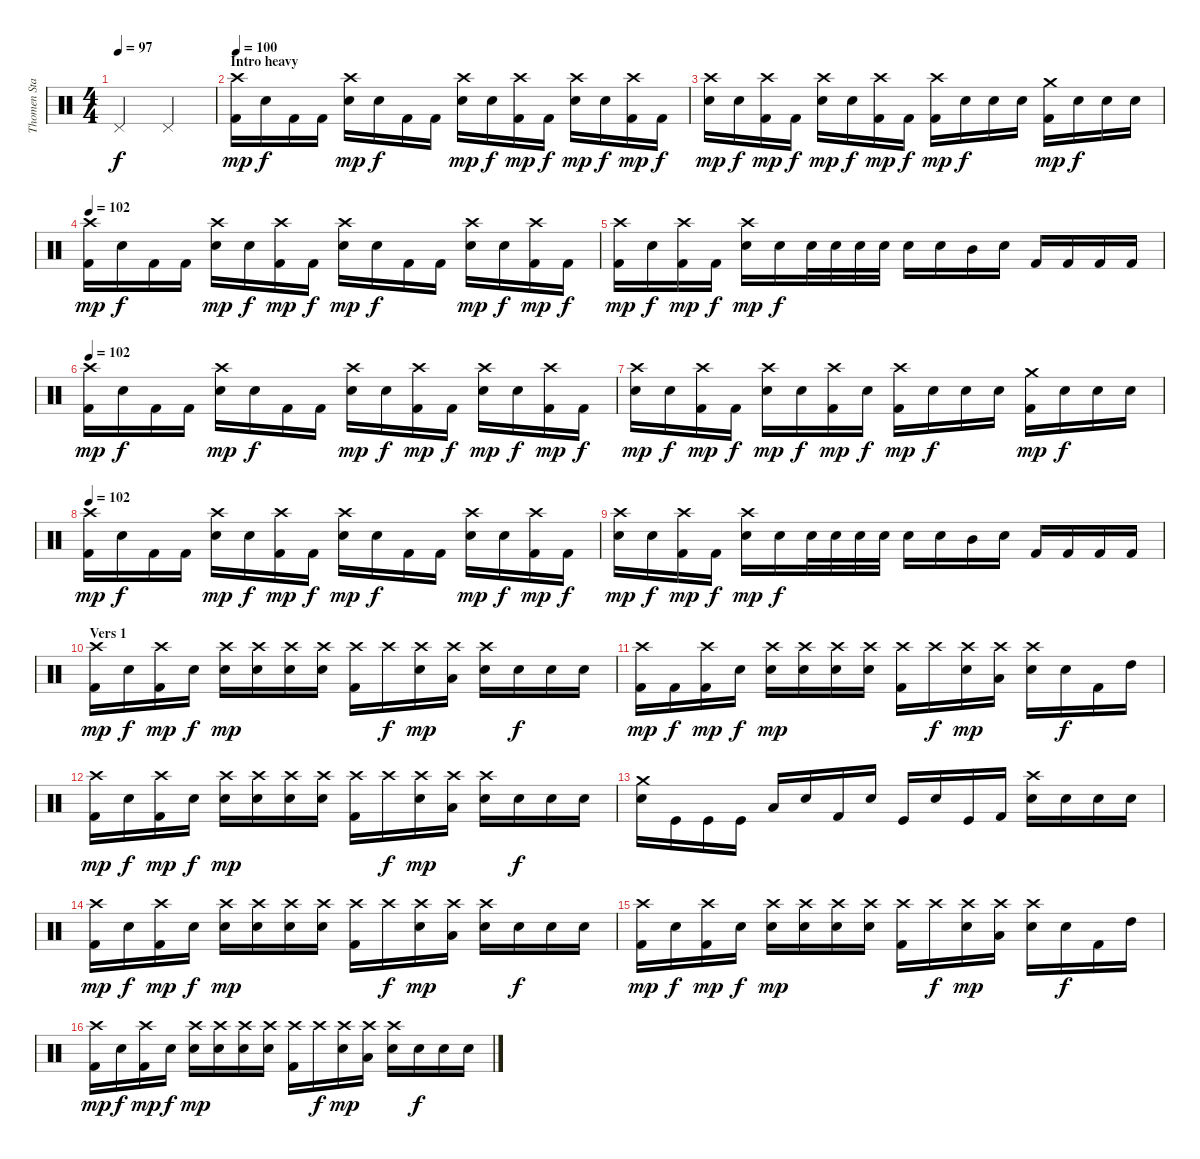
\track ("Thomen Stauch" "Thomen Sta") {instrument percussion}
\staff {score}
\articulation defaults
\ts (4 4)
\tempo 97
\clef neutral
\ks c "Pedal Hi-Hat (hit)".2{dy f} "Pedal Hi-Hat (hit)".2
|
\section ("" "Intro heavy")
\tempo 100
("Crash high (hit)" "Kick (hit) 2").16{dy mp} "Snare (hit)"{x}.16{dy f} "Kick (hit) 2".16 "Kick (hit) 2".16 ("Crash high (hit)" "Snare (hit) 2").16{dy mp} "Snare (hit)"{x}.16{dy f} "Kick (hit) 2".16 "Kick (hit) 2".16 ("Crash high (hit)" "Snare (hit)"{x}).16{dy mp} "Snare (hit)"{x}.16{dy f} ("Crash high (hit)" "Kick (hit) 2").16{dy mp} "Kick (hit) 2".16{dy f} ("Crash high (hit)" "Snare (hit) 2").16{dy mp} "Snare (hit)"{x}.16{dy f} ("Crash high (hit)" "Kick (hit) 2").16{dy mp} "Kick (hit) 2".16{dy f} |
("Crash high (hit)" "Snare (hit)"{x}).16{dy mp} "Snare (hit)"{x}.16{dy f} ("Crash high (hit)" "Kick (hit) 2").16{dy mp} "Kick (hit) 2".16{dy f} ("Crash high (hit)" "Snare (hit) 2").16{dy mp} "Snare (hit)"{x}.16{dy f} ("Crash high (hit)" "Kick (hit) 2").16{dy mp} "Kick (hit) 2"{x}.16{dy f} ("Crash high (hit)" "Kick (hit) 2").16{dy mp} "Snare (hit)"{x}.16{dy f} "Snare (hit)"{x}.16 "Snare (hit)"{x}.16 ("Crash medium (hit)" "Kick (hit) 2").16{dy mp} "Snare (hit)"{x}.16{dy f} "Snare (hit)"{x}.16 "Snare (hit)"{x}.16 |
\tempo 102
("Crash high (hit)" "Kick (hit) 2").16{dy mp} "Snare (hit)"{x}.16{dy f} "Kick (hit) 2".16 "Kick (hit) 2".16 ("Crash high (hit)" "Snare (hit) 2").16{dy mp} "Snare (hit)"{x}.16{dy f} ("Crash high (hit)" "Kick (hit) 2").16{dy mp} "Kick (hit) 2".16{dy f} ("Crash high (hit)" "Snare (hit)"{x}).16{dy mp} "Snare (hit)"{x}.16{dy f} "Kick (hit) 2".16 "Kick (hit) 2".16 ("Crash high (hit)" "Snare (hit) 2").16{dy mp} "Snare (hit)"{x}.16{dy f} ("Crash high (hit)" "Kick (hit) 2").16{dy mp} "Kick (hit) 2".16{dy f} |
("Crash high (hit)" "Kick (hit) 2"{x}).16{dy mp} "Snare (hit)"{x}.16{dy f} ("Crash high (hit)" "Kick (hit) 2").16{dy mp} "Kick (hit) 2".16{dy f} ("Crash high (hit)" "Snare (hit) 2").16{dy mp} "Snare (hit)"{x}.16{dy f} "Snare (hit) 2".32 "Snare (hit) 2".32 "Snare (hit) 2".32 "Snare (hit) 2".32 "Snare (hit) 2".16 "Snare (hit)"{x}.16 "Mid Tom (hit)".16 "Snare (hit)"{x}.16 "Kick (hit) 2".16 "Kick (hit) 2".16 "Kick (hit) 2".16 "Kick (hit) 2".16 |
\tempo 102
("Crash high (hit)" "Kick (hit) 2").16{dy mp} "Snare (hit)"{x}.16{dy f} "Kick (hit) 2".16 "Kick (hit) 2".16 ("Crash high (hit)" "Snare (hit) 2").16{dy mp} "Snare (hit)"{x}.16{dy f} "Kick (hit) 2".16 "Kick (hit) 2".16 ("Crash high (hit)" "Snare (hit)"{x}).16{dy mp} "Snare (hit)"{x}.16{dy f} ("Crash high (hit)" "Kick (hit) 2").16{dy mp} "Kick (hit) 2".16{dy f} ("Crash high (hit)" "Snare (hit) 2").16{dy mp} "Snare (hit)"{x}.16{dy f} ("Crash high (hit)" "Kick (hit) 2").16{dy mp} "Kick (hit) 2".16{dy f} |
("Crash high (hit)" "Snare (hit)"{x}).16{dy mp} "Snare (hit)"{x}.16{dy f} ("Crash high (hit)" "Kick (hit) 2").16{dy mp} "Kick (hit) 2".16{dy f} ("Crash high (hit)" "Snare (hit) 2").16{dy mp} "Snare (hit)"{x}.16{dy f} ("Crash high (hit)" "Kick (hit) 2").16{dy mp} "Snare (hit)"{x}.16{dy f} ("Crash high (hit)" "Kick (hit) 2").16{dy mp} "Snare (hit)"{x}.16{dy f} "Snare (hit)"{x}.16 "Snare (hit)"{x}.16 ("Crash medium (hit)" "Kick (hit) 2").16{dy mp} "Snare (hit)"{x}.16{dy f} "Snare (hit)"{x}.16 "Snare (hit)"{x}.16 |
\tempo 102
("Crash high (hit)" "Kick (hit) 2").16{dy mp} "Snare (hit)"{x}.16{dy f} "Kick (hit) 2".16 "Kick (hit) 2".16 ("Crash high (hit)" "Snare (hit) 2").16{dy mp} "Snare (hit)"{x}.16{dy f} ("Crash high (hit)" "Kick (hit) 2").16{dy mp} "Kick (hit) 2".16{dy f} ("Crash high (hit)" "Snare (hit)"{x}).16{dy mp} "Snare (hit)"{x}.16{dy f} "Kick (hit) 2".16 "Kick (hit) 2".16 ("Crash high (hit)" "Snare (hit) 2").16{dy mp} "Snare (hit)"{x}.16{dy f} ("Crash high (hit)" "Kick (hit) 2").16{dy mp} "Kick (hit) 2".16{dy f} |
("Crash high (hit)" "Snare (hit)"{x}).16{dy mp} "Snare (hit)"{x}.16{dy f} ("Crash high (hit)" "Kick (hit) 2").16{dy mp} "Kick (hit) 2".16{dy f} ("Crash high (hit)" "Snare (hit) 2").16{dy mp} "Snare (hit)"{x}.16{dy f} "Snare (hit) 2".32 "Snare (hit) 2".32 "Snare (hit) 2".32 "Snare (hit) 2".32 "Snare (hit) 2".16 "Snare (hit)"{x}.16 "Mid Tom (hit)".16 "Snare (hit)"{x}.16 "Kick (hit) 2".16 "Kick (hit) 2".16 "Kick (hit) 2".16 "Kick (hit) 2".16 |
\section ("" "Vers 1")
("Crash high (hit)" "Kick (hit) 2").16{dy mp} "Snare (hit)"{x}.16{dy f} ("Crash high (hit)" "Kick (hit) 2").16{dy mp} "Snare (hit)"{x}.16{dy f} ("Crash high (hit)" "Snare (hit)"{x}).16{dy mp} ("Crash high (hit)" "Snare (hit)"{x}).16 ("Crash high (hit)" "Snare (hit)"{x}).16 ("Crash high (hit)" "Snare (hit)"{x}).16 ("Crash high (hit)" "Kick (hit) 2").16 "Crash high (hit)"{x}.16{dy f} ("Crash high (hit)" "Snare (hit)"{x}).16{dy mp} ("Crash high (hit)" "Low Floor Tom (hit)"{x}).16 ("Crash high (hit)" "Snare (hit)"{x}).16 "Snare (hit)"{x}.16{dy f} "Snare (hit)"{x}.16 "Snare (hit)"{x}.16 |
("Crash high (hit)" "Kick (hit) 2").16{dy mp} "Kick (hit) 2"{x}.16{dy f} ("Crash high (hit)" "Kick (hit) 2").16{dy mp} "Snare (hit)"{x}.16{dy f} ("Crash high (hit)" "Snare (hit)"{x}).16{dy mp} ("Crash high (hit)" "Snare (hit)"{x}).16 ("Crash high (hit)" "Snare (hit)"{x}).16 ("Crash high (hit)" "Snare (hit)"{x}).16 ("Crash high (hit)" "Kick (hit) 2").16 "Crash high (hit)"{x}.16{dy f} ("Crash high (hit)" "Snare (hit)"{x}).16{dy mp} ("Crash high (hit)" "Low Floor Tom (hit)"{x}).16 ("Crash high (hit)" "Snare (hit)"{x}).16 "Snare (hit)"{x}.16{dy f} "Kick (hit) 2".16 "High Tom (hit)".16 |
("Crash high (hit)" "Kick (hit) 2").16{dy mp} "Snare (hit)"{x}.16{dy f} ("Crash high (hit)" "Kick (hit) 2").16{dy mp} "Snare (hit)"{x}.16{dy f} ("Crash high (hit)" "Snare (hit)"{x}).16{dy mp} ("Crash high (hit)" "Snare (hit)"{x}).16 ("Crash high (hit)" "Snare (hit)"{x}).16 ("Crash high (hit)" "Snare (hit)"{x}).16 ("Crash high (hit)" "Kick (hit) 2").16 "Crash high (hit)"{x}.16{dy f} ("Crash high (hit)" "Snare (hit)"{x}).16{dy mp} ("Crash high (hit)" "Low Floor Tom (hit)"{x}).16 ("Crash high (hit)" "Snare (hit)"{x}).16 "Snare (hit)"{x}.16{dy f} "Snare (hit)"{x}.16 "Snare (hit)"{x}.16 |
("Crash medium (hit)" "Snare (hit) 2").16 "Kick (hit)"{x}.16 "Kick (hit)".16 "Kick (hit)"{x}.16 "Low Floor Tom (hit)"{x}.16 "Snare (hit)"{x}.16 "Kick (hit) 2".16 "Snare (hit)"{x}.16 "Kick (hit)".16 "Snare (hit)"{x}.16 "Kick (hit)".16 "Kick (hit) 2".16 ("Crash high (hit)" "Snare (hit) 2").16 "Snare (hit)"{x}.16 "Snare (hit)"{x}.16 "Snare (hit)"{x}.16 |
("Crash high (hit)" "Kick (hit) 2").16{dy mp} "Snare (hit)"{x}.16{dy f} ("Crash high (hit)" "Kick (hit) 2").16{dy mp} "Snare (hit)"{x}.16{dy f} ("Crash high (hit)" "Snare (hit)"{x}).16{dy mp} ("Crash high (hit)" "Snare (hit)"{x}).16 ("Crash high (hit)" "Snare (hit)"{x}).16 ("Crash high (hit)" "Snare (hit)"{x}).16 ("Crash high (hit)" "Kick (hit) 2").16 "Crash high (hit)"{x}.16{dy f} ("Crash high (hit)" "Snare (hit)"{x}).16{dy mp} ("Crash high (hit)" "Low Floor Tom (hit)"{x}).16 ("Crash high (hit)" "Snare (hit)"{x}).16 "Snare (hit)"{x}.16{dy f} "Snare (hit)"{x}.16 "Snare (hit)"{x}.16 |
("Crash high (hit)" "Kick (hit) 2").16{dy mp} "Snare (hit)"{x}.16{dy f} ("Crash high (hit)" "Kick (hit) 2").16{dy mp} "Snare (hit)"{x}.16{dy f} ("Crash high (hit)" "Snare (hit)"{x}).16{dy mp} ("Crash high (hit)" "Snare (hit)"{x}).16 ("Crash high (hit)" "Snare (hit)"{x}).16 ("Crash high (hit)" "Snare (hit)"{x}).16 ("Crash high (hit)" "Kick (hit) 2").16 "Crash high (hit)"{x}.16{dy f} ("Crash high (hit)" "Snare (hit)"{x}).16{dy mp} ("Crash high (hit)" "Low Floor Tom (hit)"{x}).16 ("Crash high (hit)" "Snare (hit)"{x}).16 "Snare (hit)"{x}.16{dy f} "Kick (hit) 2".16 "High Tom (hit)".16 |
("Crash high (hit)" "Kick (hit) 2").16{dy mp} "Snare (hit)"{x}.16{dy f} ("Crash high (hit)" "Kick (hit) 2").16{dy mp} "Snare (hit)"{x}.16{dy f} ("Crash high (hit)" "Snare (hit)"{x}).16{dy mp} ("Crash high (hit)" "Snare (hit)"{x}).16 ("Crash high (hit)" "Snare (hit)"{x}).16 ("Crash high (hit)" "Snare (hit)"{x}).16 ("Crash high (hit)" "Kick (hit) 2").16 "Crash high (hit)"{x}.16{dy f} ("Crash high (hit)" "Snare (hit)"{x}).16{dy mp} ("Crash high (hit)" "Low Floor Tom (hit)"{x}).16 ("Crash high (hit)" "Snare (hit)"{x}).16 "Snare (hit)"{x}.16{dy f} "Snare (hit)"{x}.16 "Snare (hit)"{x}.16
